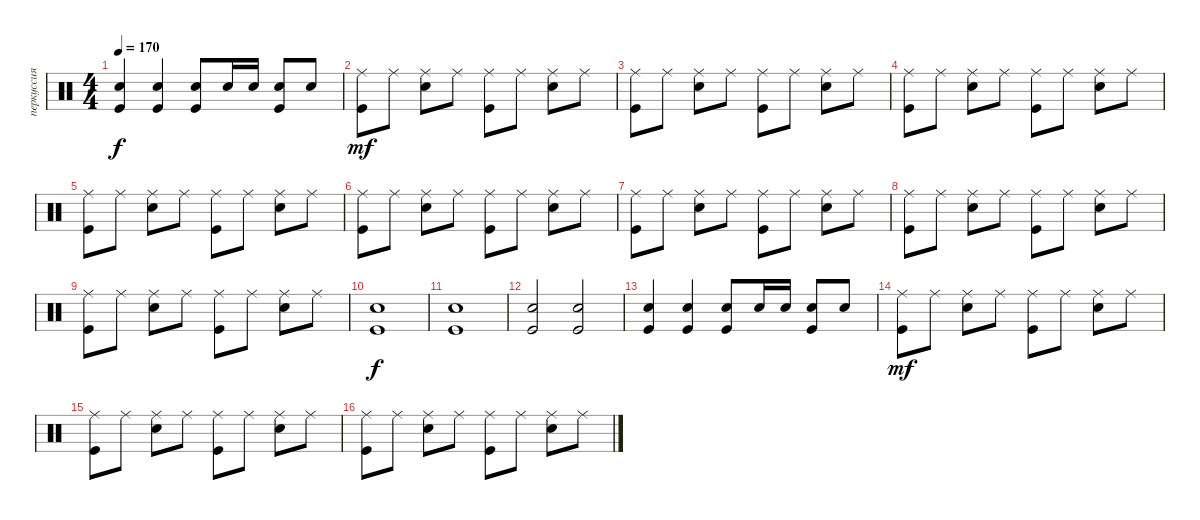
\track ("перкуссия" "перкуссия") {instrument percussion}
\staff {score}
\articulation defaults
\ts (4 4)
\tempo 170
\clef neutral
\ks c
("Snare (hit) 2" "Kick (hit)").4{dy f} ("Snare (hit) 2" "Kick (hit)").4 ("Snare (hit) 2" "Kick (hit)").8 "Snare (hit) 2".16 "Snare (hit) 2".16 ("Snare (hit) 2" "Kick (hit)").8 "Snare (hit) 2".8 |
("Ride (middle)" "Kick (hit)").8{dy mf} "Ride (middle)".8 ("Ride (middle)" "Snare (hit) 2").8 "Ride (middle)".8 ("Ride (middle)" "Kick (hit)").8 "Ride (middle)".8 ("Ride (middle)" "Snare (hit) 2").8 "Ride (middle)".8 |
("Ride (middle)" "Kick (hit)").8 "Ride (middle)".8 ("Ride (middle)" "Snare (hit) 2").8 "Ride (middle)".8 ("Ride (middle)" "Kick (hit)").8 "Ride (middle)".8 ("Ride (middle)" "Snare (hit) 2").8 "Ride (middle)".8 |
("Ride (middle)" "Kick (hit)").8 "Ride (middle)".8 ("Ride (middle)" "Snare (hit) 2").8 "Ride (middle)".8 ("Ride (middle)" "Kick (hit)").8 "Ride (middle)".8 ("Ride (middle)" "Snare (hit) 2").8 "Ride (middle)".8 |
("Ride (middle)" "Kick (hit)").8 "Ride (middle)".8 ("Ride (middle)" "Snare (hit) 2").8 "Ride (middle)".8 ("Ride (middle)" "Kick (hit)").8 "Ride (middle)".8 ("Ride (middle)" "Snare (hit) 2").8 "Ride (middle)".8 |
("Ride (middle)" "Kick (hit)").8 "Ride (middle)".8 ("Ride (middle)" "Snare (hit) 2").8 "Ride (middle)".8 ("Ride (middle)" "Kick (hit)").8 "Ride (middle)".8 ("Ride (middle)" "Snare (hit) 2").8 "Ride (middle)".8 |
("Ride (middle)" "Kick (hit)").8 "Ride (middle)".8 ("Ride (middle)" "Snare (hit) 2").8 "Ride (middle)".8 ("Ride (middle)" "Kick (hit)").8 "Ride (middle)".8 ("Ride (middle)" "Snare (hit) 2").8 "Ride (middle)".8 |
("Ride (middle)" "Kick (hit)").8 "Ride (middle)".8 ("Ride (middle)" "Snare (hit) 2").8 "Ride (middle)".8 ("Ride (middle)" "Kick (hit)").8 "Ride (middle)".8 ("Ride (middle)" "Snare (hit) 2").8 "Ride (middle)".8 |
("Ride (middle)" "Kick (hit)").8 "Ride (middle)".8 ("Ride (middle)" "Snare (hit) 2").8 "Ride (middle)".8 ("Ride (middle)" "Kick (hit)").8 "Ride (middle)".8 ("Ride (middle)" "Snare (hit) 2").8 "Ride (middle)".8 |
("Snare (hit) 2" "Kick (hit)").1{dy f} |
("Snare (hit) 2" "Kick (hit)").1 |
("Snare (hit) 2" "Kick (hit)").2 ("Snare (hit) 2" "Kick (hit)").2 |
("Snare (hit) 2" "Kick (hit)").4 ("Snare (hit) 2" "Kick (hit)").4 ("Snare (hit) 2" "Kick (hit)").8 "Snare (hit) 2".16 "Snare (hit) 2".16 ("Snare (hit) 2" "Kick (hit)").8 "Snare (hit) 2".8 |
("Ride (middle)" "Kick (hit)").8{dy mf} "Ride (middle)".8 ("Ride (middle)" "Snare (hit) 2").8 "Ride (middle)".8 ("Ride (middle)" "Kick (hit)").8 "Ride (middle)".8 ("Ride (middle)" "Snare (hit) 2").8 "Ride (middle)".8 |
("Ride (middle)" "Kick (hit)").8 "Ride (middle)".8 ("Ride (middle)" "Snare (hit) 2").8 "Ride (middle)".8 ("Ride (middle)" "Kick (hit)").8 "Ride (middle)".8 ("Ride (middle)" "Snare (hit) 2").8 "Ride (middle)".8 |
("Ride (middle)" "Kick (hit)").8 "Ride (middle)".8 ("Ride (middle)" "Snare (hit) 2").8 "Ride (middle)".8 ("Ride (middle)" "Kick (hit)").8 "Ride (middle)".8 ("Ride (middle)" "Snare (hit) 2").8 "Ride (middle)".8
